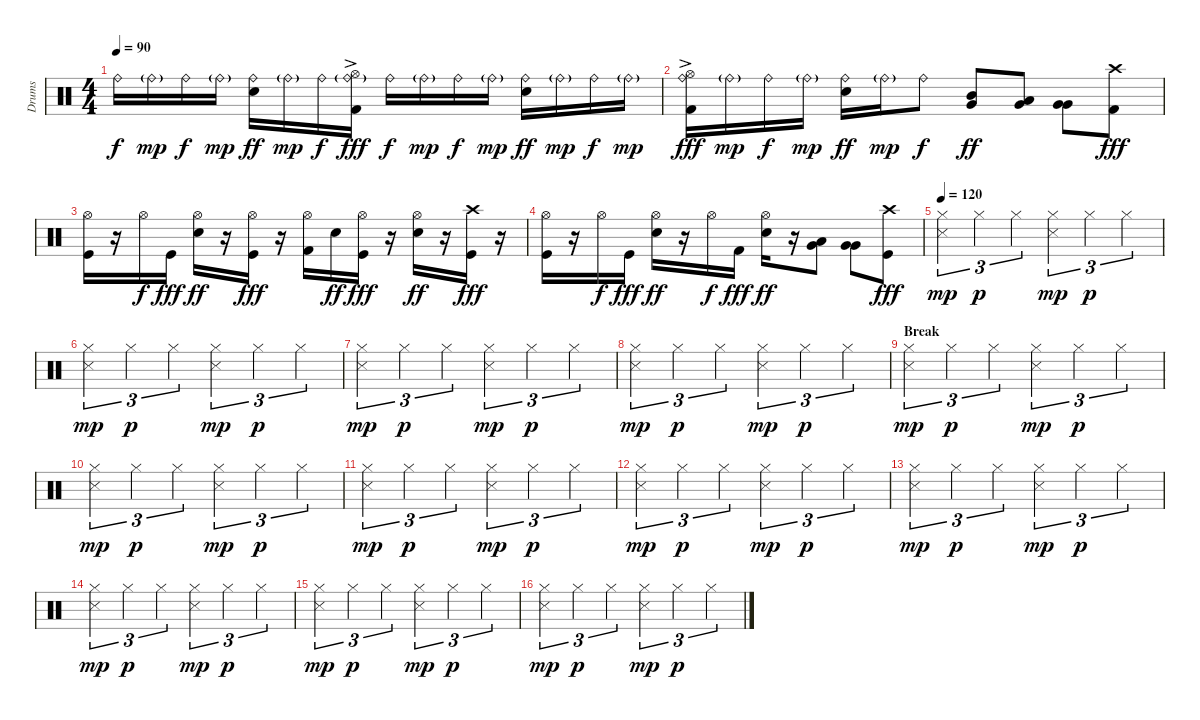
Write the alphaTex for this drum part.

\track ("Drums" "Drums") {instrument percussion}
\staff {score}
\articulation defaults
\ts (4 4)
\tempo 90
\clef neutral
\ks c "Ride (bell)".16{dy f} "Ride (bell)"{g}.16{dy mp} "Ride (bell)".16{dy f} "Ride (bell)"{g}.16{dy mp}
("Ride (bell)" "Snare (hit) 2").16{dy ff} "Ride (bell)"{g}.16{dy mp} "Ride (bell)".16{dy f} ("Hi-Hat (open)"{ac} "Ride (bell)"{g} "Kick (hit) 2").16{dy fff} "Ride (bell)".16{dy f} "Ride (bell)"{g}.16{dy mp} "Ride (bell)".16{dy f} "Ride (bell)"{g}.16{dy mp} ("Ride (bell)" "Snare (hit) 2").16{dy ff} "Ride (bell)"{g}.16{dy mp} "Ride (bell)".16{dy f} "Ride (bell)"{g}.16{dy mp} |
("Hi-Hat (open)"{ac} "Ride (bell)" "Kick (hit) 2").16{dy fff} "Ride (bell)"{g}.16{dy mp} "Ride (bell)".16{dy f} "Ride (bell)"{g}.16{dy mp} ("Ride (bell)" "Snare (hit) 2").16{dy ff} "Ride (bell)"{g}.16{dy mp} "Ride (bell)".8{dy f} ("Mid Tom (hit)" "Very Low Tom (hit)").8{dy ff} ("Low Tom (hit)" "Very Low Tom (hit)").8 ("Very Low Tom (hit)" "Very Low Tom (hit)").8 ("Crash high (hit)" "Kick (hit) 2").8{dy fff} |
("Hi-Hat (open)" "Kick (hit)").16 r.16 "Hi-Hat (open)".16{dy f} "Kick (hit)".16{dy fff} ("Hi-Hat (open)" "Snare (hit) 2").16{dy ff} r.16 ("Hi-Hat (open)" "Kick (hit)").16{dy fff} r.16 ("Hi-Hat (open)" "Kick (hit) 2").16 "Snare (hit) 2".16{dy ff} ("Hi-Hat (open)" "Kick (hit)").16{dy fff} r.16 ("Hi-Hat (open)" "Snare (hit) 2").16{dy ff} r.16 ("Crash high (hit)" "Kick (hit)").16{dy fff} r.16 |
("Hi-Hat (open)" "Kick (hit)").16 r.16 "Hi-Hat (open)".16{dy f} "Kick (hit)".16{dy fff} ("Hi-Hat (open)" "Snare (hit) 2").16{dy ff} r.16 "Hi-Hat (open)".16{dy f} "Kick (hit) 2".16{dy fff} ("Hi-Hat (open)" "Snare (hit) 2").16{dy ff} r.16 ("Low Tom (hit)" "Very Low Tom (hit)").8 ("Very Low Tom (hit)" "Very Low Tom (hit)").8 ("Crash high (hit)" "Kick (hit)").8{dy fff} |
\tempo 120
("Hi-Hat (closed)" "Snare (side stick) 3").4{tu (3 2) dy mp} "Hi-Hat (closed)".4{tu (3 2) dy p} "Hi-Hat (closed)".4{tu (3 2)} ("Hi-Hat (closed)" "Snare (side stick) 3").4{tu (3 2) dy mp} "Hi-Hat (closed)".4{tu (3 2) dy p} "Hi-Hat (closed)".4{tu (3 2)} |
("Hi-Hat (closed)" "Snare (side stick) 3").4{tu (3 2) dy mp} "Hi-Hat (closed)".4{tu (3 2) dy p} "Hi-Hat (closed)".4{tu (3 2)} ("Hi-Hat (closed)" "Snare (side stick) 3").4{tu (3 2) dy mp} "Hi-Hat (closed)".4{tu (3 2) dy p} "Hi-Hat (closed)".4{tu (3 2)} |
("Hi-Hat (closed)" "Snare (side stick) 3").4{tu (3 2) dy mp} "Hi-Hat (closed)".4{tu (3 2) dy p} "Hi-Hat (closed)".4{tu (3 2)} ("Hi-Hat (closed)" "Snare (side stick) 3").4{tu (3 2) dy mp} "Hi-Hat (closed)".4{tu (3 2) dy p} "Hi-Hat (closed)".4{tu (3 2)} |
("Hi-Hat (closed)" "Snare (side stick) 3").4{tu (3 2) dy mp} "Hi-Hat (closed)".4{tu (3 2) dy p} "Hi-Hat (closed)".4{tu (3 2)} ("Hi-Hat (closed)" "Snare (side stick) 3").4{tu (3 2) dy mp} "Hi-Hat (closed)".4{tu (3 2) dy p} "Hi-Hat (closed)".4{tu (3 2)} |
\section ("" "Break")
("Hi-Hat (closed)" "Snare (side stick) 3").4{tu (3 2) dy mp} "Hi-Hat (closed)".4{tu (3 2) dy p} "Hi-Hat (closed)".4{tu (3 2)} ("Hi-Hat (closed)" "Snare (side stick) 3").4{tu (3 2) dy mp} "Hi-Hat (closed)".4{tu (3 2) dy p} "Hi-Hat (closed)".4{tu (3 2)} |
("Hi-Hat (closed)" "Snare (side stick) 3").4{tu (3 2) dy mp} "Hi-Hat (closed)".4{tu (3 2) dy p} "Hi-Hat (closed)".4{tu (3 2)} ("Hi-Hat (closed)" "Snare (side stick) 3").4{tu (3 2) dy mp} "Hi-Hat (closed)".4{tu (3 2) dy p} "Hi-Hat (closed)".4{tu (3 2)} |
("Hi-Hat (closed)" "Snare (side stick) 3").4{tu (3 2) dy mp} "Hi-Hat (closed)".4{tu (3 2) dy p} "Hi-Hat (closed)".4{tu (3 2)} ("Hi-Hat (closed)" "Snare (side stick) 3").4{tu (3 2) dy mp} "Hi-Hat (closed)".4{tu (3 2) dy p} "Hi-Hat (closed)".4{tu (3 2)} |
("Hi-Hat (closed)" "Snare (side stick) 3").4{tu (3 2) dy mp} "Hi-Hat (closed)".4{tu (3 2) dy p} "Hi-Hat (closed)".4{tu (3 2)} ("Hi-Hat (closed)" "Snare (side stick) 3").4{tu (3 2) dy mp} "Hi-Hat (closed)".4{tu (3 2) dy p} "Hi-Hat (closed)".4{tu (3 2)} |
("Hi-Hat (closed)" "Snare (side stick) 3").4{tu (3 2) dy mp} "Hi-Hat (closed)".4{tu (3 2) dy p} "Hi-Hat (closed)".4{tu (3 2)} ("Hi-Hat (closed)" "Snare (side stick) 3").4{tu (3 2) dy mp} "Hi-Hat (closed)".4{tu (3 2) dy p} "Hi-Hat (closed)".4{tu (3 2)} |
("Hi-Hat (closed)" "Snare (side stick) 3").4{tu (3 2) dy mp} "Hi-Hat (closed)".4{tu (3 2) dy p} "Hi-Hat (closed)".4{tu (3 2)} ("Hi-Hat (closed)" "Snare (side stick) 3").4{tu (3 2) dy mp} "Hi-Hat (closed)".4{tu (3 2) dy p} "Hi-Hat (closed)".4{tu (3 2)} |
("Hi-Hat (closed)" "Snare (side stick) 3").4{tu (3 2) dy mp} "Hi-Hat (closed)".4{tu (3 2) dy p} "Hi-Hat (closed)".4{tu (3 2)} ("Hi-Hat (closed)" "Snare (side stick) 3").4{tu (3 2) dy mp} "Hi-Hat (closed)".4{tu (3 2) dy p} "Hi-Hat (closed)".4{tu (3 2)} |
("Hi-Hat (closed)" "Snare (side stick) 3").4{tu (3 2) dy mp} "Hi-Hat (closed)".4{tu (3 2) dy p} "Hi-Hat (closed)".4{tu (3 2)} ("Hi-Hat (closed)" "Snare (side stick) 3").4{tu (3 2) dy mp} "Hi-Hat (closed)".4{tu (3 2) dy p} "Hi-Hat (closed)".4{tu (3 2)}
